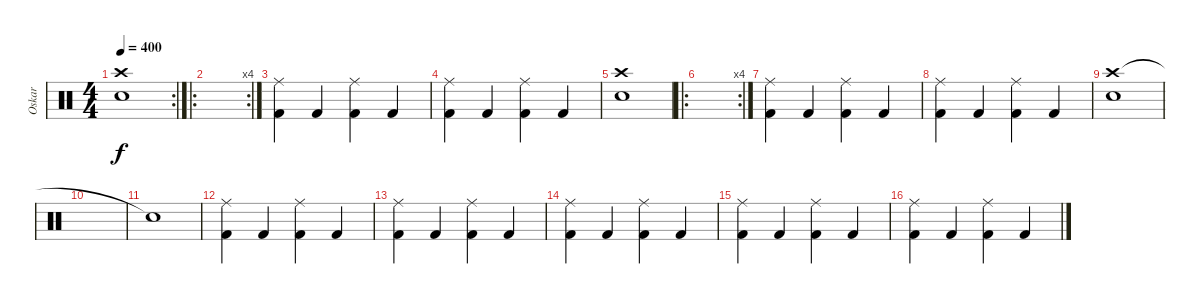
\track ("Oskar" "Oskar") {instrument percussion}
\staff {score}
\articulation defaults
\rc 2
\ts (4 4)
\tempo 400
\clef neutral
\ks c
("Crash high (hit)" "Electric Snare (hit)").1{dy f} |
\ro
\rc 4
|
("Ride (middle)" "Kick (hit) 2").4 "Kick (hit) 2".4 ("Ride (middle)" "Kick (hit) 2").4 "Kick (hit) 2".4 |
("Ride (middle)" "Kick (hit) 2").4 "Kick (hit) 2".4 ("Ride (middle)" "Kick (hit) 2").4 "Kick (hit) 2".4 |
("Crash high (hit)" "Electric Snare (hit)").1 |
\ro
\rc 4
|
("Ride (middle)" "Kick (hit) 2").4 "Kick (hit) 2".4 ("Ride (middle)" "Kick (hit) 2").4 "Kick (hit) 2".4 |
("Ride (middle)" "Kick (hit) 2").4 "Kick (hit) 2".4 ("Ride (middle)" "Kick (hit) 2").4 "Kick (hit) 2".4 |
("Crash high (hit)" "Electric Snare (hit)").1 |
|
"Snare (hit)"{t}.1 |
("Ride (middle)" "Kick (hit) 2").4 "Kick (hit) 2".4 ("Ride (middle)" "Kick (hit) 2").4 "Kick (hit) 2".4 |
("Ride (middle)" "Kick (hit) 2").4 "Kick (hit) 2".4 ("Ride (middle)" "Kick (hit) 2").4 "Kick (hit) 2".4 |
("Ride (middle)" "Kick (hit) 2").4 "Kick (hit) 2".4 ("Ride (middle)" "Kick (hit) 2").4 "Kick (hit) 2".4 |
("Ride (middle)" "Kick (hit) 2").4 "Kick (hit) 2".4 ("Ride (middle)" "Kick (hit) 2").4 "Kick (hit) 2".4 |
("Ride (middle)" "Kick (hit) 2").4 "Kick (hit) 2".4 ("Ride (middle)" "Kick (hit) 2").4 "Kick (hit) 2".4
